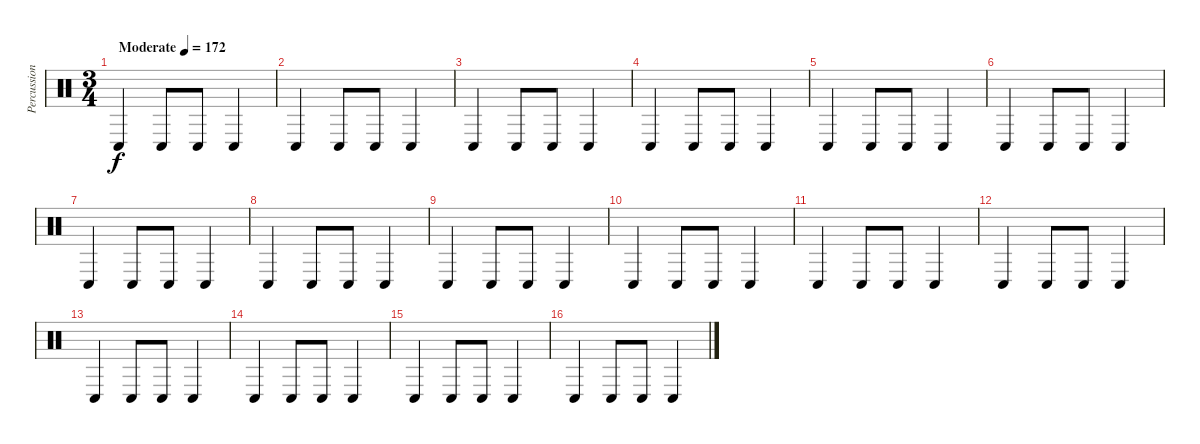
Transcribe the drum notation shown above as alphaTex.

\track ("Percussion" "Percussion") {instrument percussion}
\staff {score}
\articulation defaults
\ts (3 4)
\tempo (172 "Moderate")
\clef neutral
\ks c "Conga low (hit)".4{dy f} "Conga low (hit)".8 "Conga low (hit)".8 "Conga low (hit)".4
|
"Conga low (hit)".4 "Conga low (hit)".8 "Conga low (hit)".8 "Conga low (hit)".4 |
"Conga low (hit)".4 "Conga low (hit)".8 "Conga low (hit)".8 "Conga low (hit)".4 |
"Conga low (hit)".4 "Conga low (hit)".8 "Conga low (hit)".8 "Conga low (hit)".4 |
"Conga low (hit)".4 "Conga low (hit)".8 "Conga low (hit)".8 "Conga low (hit)".4 |
"Conga low (hit)".4 "Conga low (hit)".8 "Conga low (hit)".8 "Conga low (hit)".4 |
"Conga low (hit)".4 "Conga low (hit)".8 "Conga low (hit)".8 "Conga low (hit)".4 |
"Conga low (hit)".4 "Conga low (hit)".8 "Conga low (hit)".8 "Conga low (hit)".4 |
"Conga low (hit)".4 "Conga low (hit)".8 "Conga low (hit)".8 "Conga low (hit)".4 |
"Conga low (hit)".4 "Conga low (hit)".8 "Conga low (hit)".8 "Conga low (hit)".4 |
"Conga low (hit)".4 "Conga low (hit)".8 "Conga low (hit)".8 "Conga low (hit)".4 |
"Conga low (hit)".4 "Conga low (hit)".8 "Conga low (hit)".8 "Conga low (hit)".4 |
"Conga low (hit)".4 "Conga low (hit)".8 "Conga low (hit)".8 "Conga low (hit)".4 |
"Conga low (hit)".4 "Conga low (hit)".8 "Conga low (hit)".8 "Conga low (hit)".4 |
"Conga low (hit)".4 "Conga low (hit)".8 "Conga low (hit)".8 "Conga low (hit)".4 |
"Conga low (hit)".4 "Conga low (hit)".8 "Conga low (hit)".8 "Conga low (hit)".4
